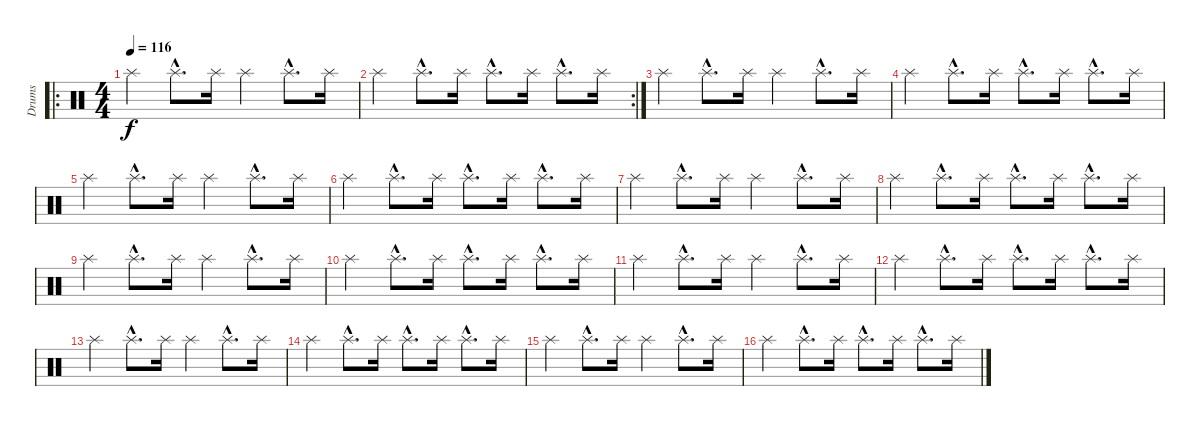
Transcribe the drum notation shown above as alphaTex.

\track ("Drums" "Drums") {instrument percussion}
\staff {score}
\articulation defaults
\ro
\ts (4 4)
\tempo 116
\clef neutral
\ks c "Splash (hit)".4{dy f} "Splash (hit)"{hac}.8{d} "Splash (hit)".16 "Splash (hit)".4 "Splash (hit)"{hac}.8{d} "Splash (hit)".16
|
\rc 2 "Splash (hit)".4 "Splash (hit)"{hac}.8{d} "Splash (hit)".16 "Splash (hit)"{hac}.8{d} "Splash (hit)".16 "Splash (hit)"{hac}.8{d} "Splash (hit)".16
|
"Splash (hit)".4 "Splash (hit)"{hac}.8{d} "Splash (hit)".16 "Splash (hit)".4 "Splash (hit)"{hac}.8{d} "Splash (hit)".16 |
"Splash (hit)".4 "Splash (hit)"{hac}.8{d} "Splash (hit)".16 "Splash (hit)"{hac}.8{d} "Splash (hit)".16 "Splash (hit)"{hac}.8{d} "Splash (hit)".16 |
"Splash (hit)".4 "Splash (hit)"{hac}.8{d} "Splash (hit)".16 "Splash (hit)".4 "Splash (hit)"{hac}.8{d} "Splash (hit)".16 |
"Splash (hit)".4 "Splash (hit)"{hac}.8{d} "Splash (hit)".16 "Splash (hit)"{hac}.8{d} "Splash (hit)".16 "Splash (hit)"{hac}.8{d} "Splash (hit)".16 |
"Splash (hit)".4 "Splash (hit)"{hac}.8{d} "Splash (hit)".16 "Splash (hit)".4 "Splash (hit)"{hac}.8{d} "Splash (hit)".16 |
"Splash (hit)".4 "Splash (hit)"{hac}.8{d} "Splash (hit)".16 "Splash (hit)"{hac}.8{d} "Splash (hit)".16 "Splash (hit)"{hac}.8{d} "Splash (hit)".16 |
"Splash (hit)".4 "Splash (hit)"{hac}.8{d} "Splash (hit)".16 "Splash (hit)".4 "Splash (hit)"{hac}.8{d} "Splash (hit)".16 |
"Splash (hit)".4 "Splash (hit)"{hac}.8{d} "Splash (hit)".16 "Splash (hit)"{hac}.8{d} "Splash (hit)".16 "Splash (hit)"{hac}.8{d} "Splash (hit)".16 |
"Splash (hit)".4 "Splash (hit)"{hac}.8{d} "Splash (hit)".16 "Splash (hit)".4 "Splash (hit)"{hac}.8{d} "Splash (hit)".16 |
"Splash (hit)".4 "Splash (hit)"{hac}.8{d} "Splash (hit)".16 "Splash (hit)"{hac}.8{d} "Splash (hit)".16 "Splash (hit)"{hac}.8{d} "Splash (hit)".16 |
"Splash (hit)".4 "Splash (hit)"{hac}.8{d} "Splash (hit)".16 "Splash (hit)".4 "Splash (hit)"{hac}.8{d} "Splash (hit)".16 |
"Splash (hit)".4 "Splash (hit)"{hac}.8{d} "Splash (hit)".16 "Splash (hit)"{hac}.8{d} "Splash (hit)".16 "Splash (hit)"{hac}.8{d} "Splash (hit)".16 |
"Splash (hit)".4 "Splash (hit)"{hac}.8{d} "Splash (hit)".16 "Splash (hit)".4 "Splash (hit)"{hac}.8{d} "Splash (hit)".16 |
"Splash (hit)".4 "Splash (hit)"{hac}.8{d} "Splash (hit)".16 "Splash (hit)"{hac}.8{d} "Splash (hit)".16 "Splash (hit)"{hac}.8{d} "Splash (hit)".16
